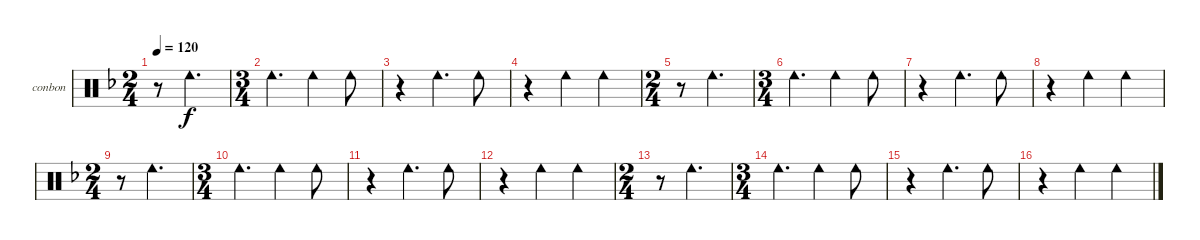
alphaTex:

\defaultSystemsLayout 4
\bracketExtendMode groupsimilarinstruments
\firstSystemTrackNameOrientation horizontal
\otherSystemsTrackNameOrientation horizontal
\track ("Bongos N Congas" "conbon") {instrument percussion}
\staff {score}
\articulation defaults
\ts (2 4)
\tempo 120
\clef neutral
\ks f
r.8{dy f} "Cowbell low (hit)".4{d} |
\ts (3 4)
"Cowbell low (hit)".4{d} "Cowbell low (hit)".4 "Cowbell low (hit)".8 |
r.4 "Cowbell low (hit)".4{d} "Cowbell low (hit)".8 |
r.4 "Cowbell low (hit)".4 "Cowbell low (hit)".4 |
\ts (2 4)
r.8 "Cowbell low (hit)".4{d} |
\ts (3 4)
"Cowbell low (hit)".4{d} "Cowbell low (hit)".4 "Cowbell low (hit)".8 |
r.4 "Cowbell low (hit)".4{d} "Cowbell low (hit)".8 |
r.4 "Cowbell low (hit)".4 "Cowbell low (hit)".4 |
\ts (2 4)
r.8 "Cowbell low (hit)".4{d} |
\ts (3 4)
"Cowbell low (hit)".4{d} "Cowbell low (hit)".4 "Cowbell low (hit)".8 |
r.4 "Cowbell low (hit)".4{d} "Cowbell low (hit)".8 |
r.4 "Cowbell low (hit)".4 "Cowbell low (hit)".4 |
\ts (2 4)
r.8 "Cowbell low (hit)".4{d} |
\ts (3 4)
"Cowbell low (hit)".4{d} "Cowbell low (hit)".4 "Cowbell low (hit)".8 |
r.4 "Cowbell low (hit)".4{d} "Cowbell low (hit)".8 |
r.4 "Cowbell low (hit)".4 "Cowbell low (hit)".4
